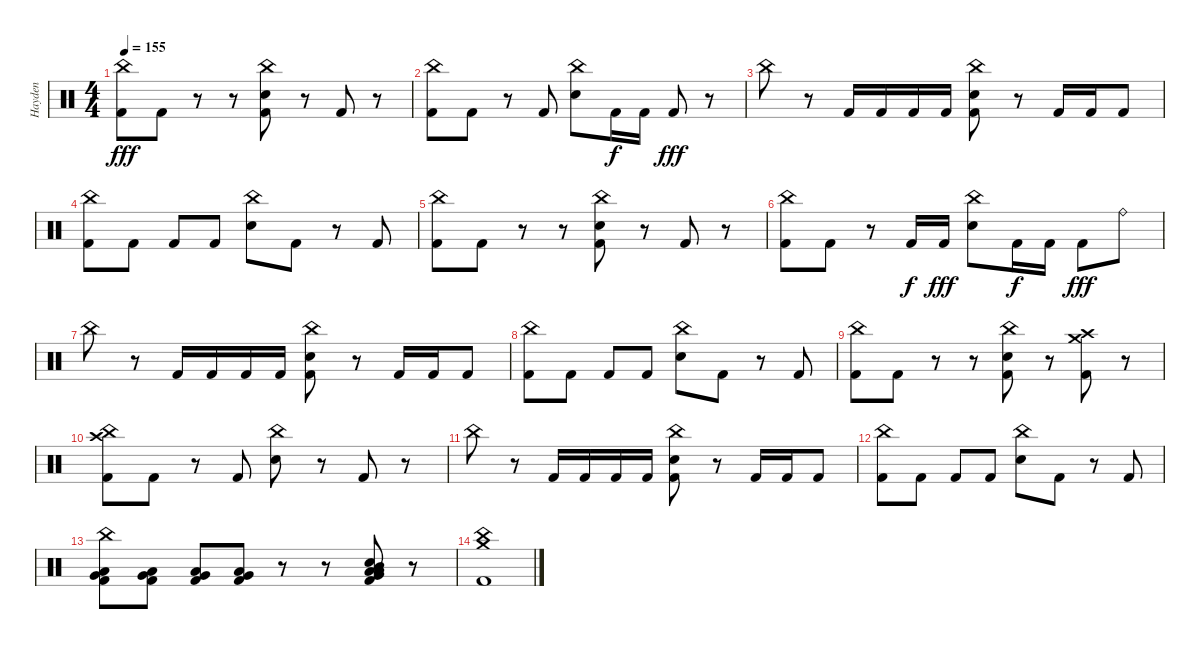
\track ("Hayden" "Hayden") {instrument percussion}
\staff {score}
\articulation defaults
\ts (4 4)
\tempo 155
\clef neutral
\ks c
("China (hit)" "Kick (hit) 2").8{dy fff} "Kick (hit) 2".8 r.8 r.8 ("China (hit)" "Snare (hit) 2" "Kick (hit) 2").8 r.8 "Kick (hit) 2".8 r.8 |
("China (hit)" "Kick (hit) 2").8 "Kick (hit) 2".8 r.8 "Kick (hit) 2".8 ("China (hit)" "Snare (hit) 2").8 "Kick (hit) 2".16{dy f} "Kick (hit) 2".16 "Kick (hit) 2".8{dy fff} r.8 |
"China (hit)".8 r.8 "Kick (hit) 2".16 "Kick (hit) 2".16 "Kick (hit) 2".16 "Kick (hit) 2".16 ("China (hit)" "Snare (hit) 2" "Kick (hit) 2").8 r.8 "Kick (hit) 2".16 "Kick (hit) 2".16 "Kick (hit) 2".8 |
("China (hit)" "Kick (hit) 2").8 "Kick (hit) 2".8 "Kick (hit) 2".8 "Kick (hit) 2".8 ("China (hit)" "Snare (hit) 2").8 "Kick (hit) 2".8 r.8 "Kick (hit) 2".8 |
("China (hit)" "Kick (hit) 2").8 "Kick (hit) 2".8 r.8 r.8 ("China (hit)" "Snare (hit) 2" "Kick (hit) 2").8 r.8 "Kick (hit) 2".8 r.8 |
("China (hit)" "Kick (hit) 2").8 "Kick (hit) 2".8 r.8 "Kick (hit) 2".16{dy f} "Kick (hit) 2".16{dy fff} ("China (hit)" "Snare (hit) 2").8 "Kick (hit) 2".16{dy f} "Kick (hit) 2".16 "Kick (hit) 2".8{dy fff} "Ride (bell)".8 |
"China (hit)".8 r.8 "Kick (hit) 2".16 "Kick (hit) 2".16 "Kick (hit) 2".16 "Kick (hit) 2".16 ("China (hit)" "Snare (hit) 2" "Kick (hit) 2").8 r.8 "Kick (hit) 2".16 "Kick (hit) 2".16 "Kick (hit) 2".8 |
("China (hit)" "Kick (hit) 2").8 "Kick (hit) 2".8 "Kick (hit) 2".8 "Kick (hit) 2".8 ("China (hit)" "Snare (hit) 2").8 "Kick (hit) 2".8 r.8 "Kick (hit) 2".8 |
("China (hit)" "Kick (hit) 2").8 "Kick (hit) 2".8 r.8 r.8 ("China (hit)" "Snare (hit) 2" "Kick (hit) 2").8 r.8 ("Crash high (hit)" "Crash medium (hit)" "Kick (hit) 2").8 r.8 |
("China (hit)" "Crash high (hit)" "Kick (hit) 2").8 "Kick (hit) 2".8 r.8 "Kick (hit) 2".8 ("China (hit)" "Snare (hit) 2").8 r.8 "Kick (hit) 2".8 r.8 |
"China (hit)".8 r.8 "Kick (hit) 2".16 "Kick (hit) 2".16 "Kick (hit) 2".16 "Kick (hit) 2".16 ("China (hit)" "Snare (hit) 2" "Kick (hit) 2").8 r.8 "Kick (hit) 2".16 "Kick (hit) 2".16 "Kick (hit) 2".8 |
("China (hit)" "Kick (hit) 2").8 "Kick (hit) 2".8 "Kick (hit) 2".8 "Kick (hit) 2".8 ("China (hit)" "Snare (hit) 2").8 "Kick (hit) 2".8 r.8 "Kick (hit) 2".8 |
("China (hit)" "Low Tom (hit)" "Very Low Tom (hit)" "Kick (hit) 2").8 ("Low Tom (hit)" "Very Low Tom (hit)" "Kick (hit) 2").8 ("Low Tom (hit)" "Very Low Tom (hit)" "Kick (hit) 2").8 ("Low Tom (hit)" "Very Low Tom (hit)" "Kick (hit) 2").8 r.8 r.8 ("Mid Tom (hit)" "Very Low Tom (hit)" "Snare (hit) 2" "Low Tom (hit)" "Low Floor Tom (hit)" "Kick (hit) 2").8 r.8 |
("Crash medium (hit)" "China (hit)" "Kick (hit) 2").1
